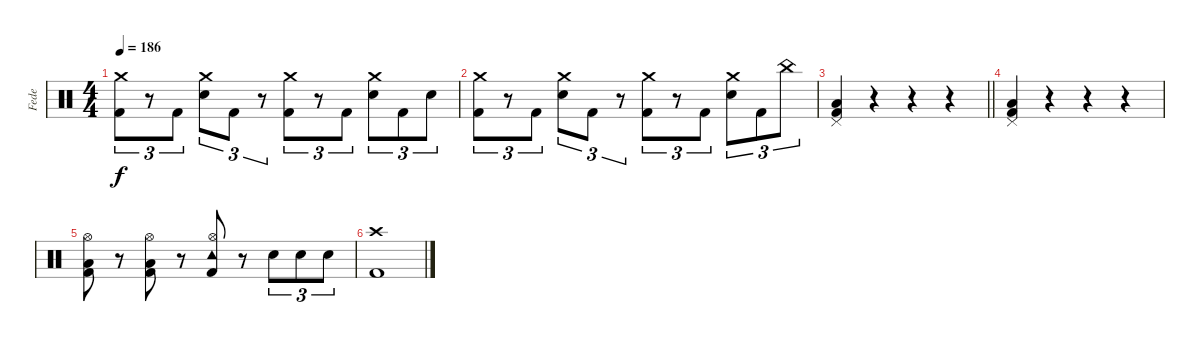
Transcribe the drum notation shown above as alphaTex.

\track ("Fede" "Fede") {instrument percussion}
\staff {score}
\articulation defaults
\ts (4 4)
\tempo 186
\clef neutral
\ks c
("Crash medium (hit)" "Kick (hit) 2").8{tu (3 2) dy f} r.8{tu (3 2)} "Kick (hit) 2".8{tu (3 2)} ("Crash medium (hit)" "Snare (hit) 2").8{tu (3 2)} "Kick (hit) 2".8{tu (3 2)} r.8{tu (3 2)} ("Crash medium (hit)" "Kick (hit) 2").8{tu (3 2)} r.8{tu (3 2)} "Kick (hit) 2".8{tu (3 2)} ("Crash medium (hit)" "Snare (hit) 2").8{tu (3 2)} "Kick (hit) 2".8{tu (3 2)} "Snare (hit) 2".8{tu (3 2)} |
("Crash medium (hit)" "Kick (hit) 2").8{tu (3 2)} r.8{tu (3 2)} "Kick (hit) 2".8{tu (3 2)} ("Crash medium (hit)" "Snare (hit) 2").8{tu (3 2)} "Kick (hit) 2".8{tu (3 2)} r.8{tu (3 2)} ("Crash medium (hit)" "Kick (hit) 2").8{tu (3 2)} r.8{tu (3 2)} "Kick (hit) 2".8{tu (3 2)} ("Crash medium (hit)" "Snare (hit) 2").8{tu (3 2)} "Kick (hit) 2".8{tu (3 2)} "China (hit)".8{tu (3 2)} |
\barLineRight lightlight
("Pedal Hi-Hat (hit)" "Low Tom (hit)" "Kick (hit) 2").4 r.4 r.4 r.4 |
("Pedal Hi-Hat (hit)" "Low Tom (hit)" "Kick (hit) 2").4 r.4 r.4 r.4 |
("Hi-Hat (open)" "Low Tom (hit)" "Kick (hit) 2").8 r.8 ("Hi-Hat (open)" "Low Tom (hit)" "Kick (hit) 2").8 r.8 ("Hi-Hat (open)" "Tambourine (hit)" "Kick (hit) 2").8 r.8 "Snare (hit) 2".8{tu (3 2)} "Snare (hit) 2".8{tu (3 2)} "Snare (hit) 2".8{tu (3 2)} |
("Crash high (hit)" "Kick (hit) 2").1
